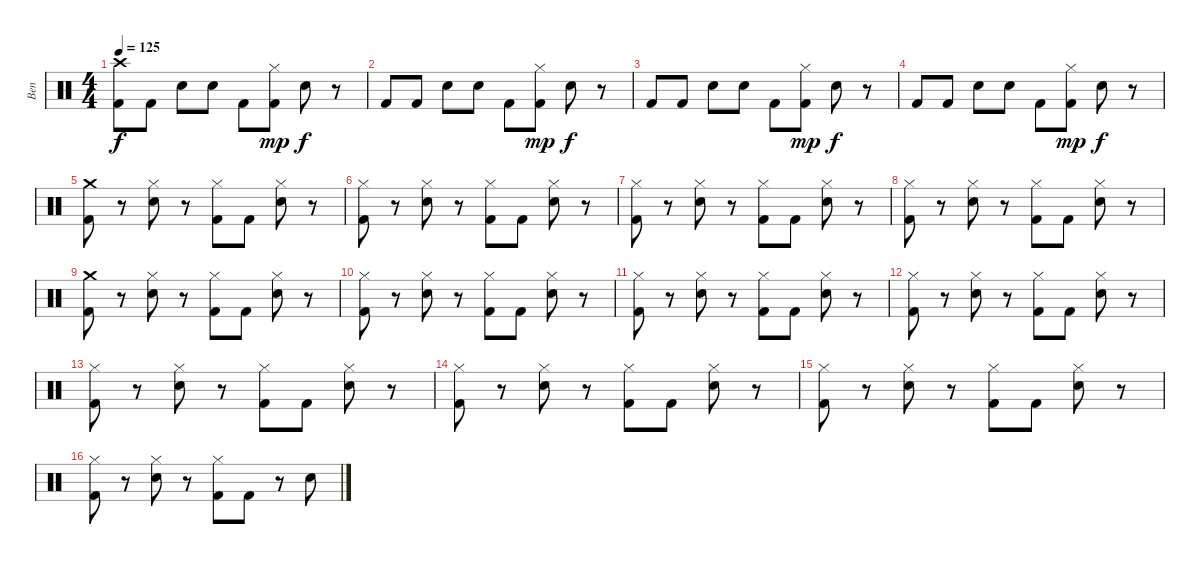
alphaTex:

\track ("Ben" "Ben") {instrument percussion}
\staff {score}
\articulation defaults
\ts (4 4)
\tempo 125
\clef neutral
\ks c
("Crash high (hit)" "Kick (hit) 2").8{dy f} "Kick (hit) 2".8 "Snare (hit) 2".8 "Snare (hit) 2".8 "Kick (hit) 2".8 ("Hi-Hat (closed)" "Kick (hit) 2").8{dy mp} "Snare (hit) 2".8{dy f} r.8 |
"Kick (hit) 2".8 "Kick (hit) 2".8 "Snare (hit) 2".8 "Snare (hit) 2".8 "Kick (hit) 2".8 ("Hi-Hat (closed)" "Kick (hit) 2").8{dy mp} "Snare (hit) 2".8{dy f} r.8 |
"Kick (hit) 2".8 "Kick (hit) 2".8 "Snare (hit) 2".8 "Snare (hit) 2".8 "Kick (hit) 2".8 ("Hi-Hat (closed)" "Kick (hit) 2").8{dy mp} "Snare (hit) 2".8{dy f} r.8 |
"Kick (hit) 2".8 "Kick (hit) 2".8 "Snare (hit) 2".8 "Snare (hit) 2".8 "Kick (hit) 2".8 ("Hi-Hat (closed)" "Kick (hit) 2").8{dy mp} "Snare (hit) 2".8{dy f} r.8 |
("Crash medium (hit)" "Kick (hit) 2").8 r.8 ("Snare (hit) 2" "Hi-Hat (closed)").8 r.8 ("Kick (hit) 2" "Hi-Hat (closed)").8 "Kick (hit) 2".8 ("Snare (hit) 2" "Hi-Hat (closed)").8 r.8 |
("Kick (hit) 2" "Hi-Hat (closed)").8 r.8 ("Snare (hit) 2" "Hi-Hat (closed)").8 r.8 ("Kick (hit) 2" "Hi-Hat (closed)").8 "Kick (hit) 2".8 ("Snare (hit) 2" "Hi-Hat (closed)").8 r.8 |
("Kick (hit) 2" "Hi-Hat (closed)").8 r.8 ("Snare (hit) 2" "Hi-Hat (closed)").8 r.8 ("Kick (hit) 2" "Hi-Hat (closed)").8 "Kick (hit) 2".8 ("Snare (hit) 2" "Hi-Hat (closed)").8 r.8 |
("Kick (hit) 2" "Hi-Hat (closed)").8 r.8 ("Snare (hit) 2" "Hi-Hat (closed)").8 r.8 ("Kick (hit) 2" "Hi-Hat (closed)").8 "Kick (hit) 2".8 ("Snare (hit) 2" "Hi-Hat (closed)").8 r.8 |
("Crash medium (hit)" "Kick (hit) 2").8 r.8 ("Snare (hit) 2" "Hi-Hat (closed)").8 r.8 ("Kick (hit) 2" "Hi-Hat (closed)").8 "Kick (hit) 2".8 ("Snare (hit) 2" "Hi-Hat (closed)").8 r.8 |
("Kick (hit) 2" "Hi-Hat (closed)").8 r.8 ("Snare (hit) 2" "Hi-Hat (closed)").8 r.8 ("Kick (hit) 2" "Hi-Hat (closed)").8 "Kick (hit) 2".8 ("Snare (hit) 2" "Hi-Hat (closed)").8 r.8 |
("Kick (hit) 2" "Hi-Hat (closed)").8 r.8 ("Snare (hit) 2" "Hi-Hat (closed)").8 r.8 ("Kick (hit) 2" "Hi-Hat (closed)").8 "Kick (hit) 2".8 ("Snare (hit) 2" "Hi-Hat (closed)").8 r.8 |
("Kick (hit) 2" "Hi-Hat (closed)").8 r.8 ("Snare (hit) 2" "Hi-Hat (closed)").8 r.8 ("Kick (hit) 2" "Hi-Hat (closed)").8 "Kick (hit) 2".8 ("Snare (hit) 2" "Hi-Hat (closed)").8 r.8 |
("Kick (hit) 2" "Hi-Hat (closed)").8 r.8 ("Snare (hit) 2" "Hi-Hat (closed)").8 r.8 ("Kick (hit) 2" "Hi-Hat (closed)").8 "Kick (hit) 2".8 ("Snare (hit) 2" "Hi-Hat (closed)").8 r.8 |
("Kick (hit) 2" "Hi-Hat (closed)").8 r.8 ("Snare (hit) 2" "Hi-Hat (closed)").8 r.8 ("Kick (hit) 2" "Hi-Hat (closed)").8 "Kick (hit) 2".8 ("Snare (hit) 2" "Hi-Hat (closed)").8 r.8 |
("Kick (hit) 2" "Hi-Hat (closed)").8 r.8 ("Snare (hit) 2" "Hi-Hat (closed)").8 r.8 ("Kick (hit) 2" "Hi-Hat (closed)").8 "Kick (hit) 2".8 ("Snare (hit) 2" "Hi-Hat (closed)").8 r.8 |
("Kick (hit) 2" "Hi-Hat (closed)").8 r.8 ("Snare (hit) 2" "Hi-Hat (closed)").8 r.8 ("Kick (hit) 2" "Hi-Hat (closed)").8 "Kick (hit) 2".8 r.8 "Snare (hit) 2".8
